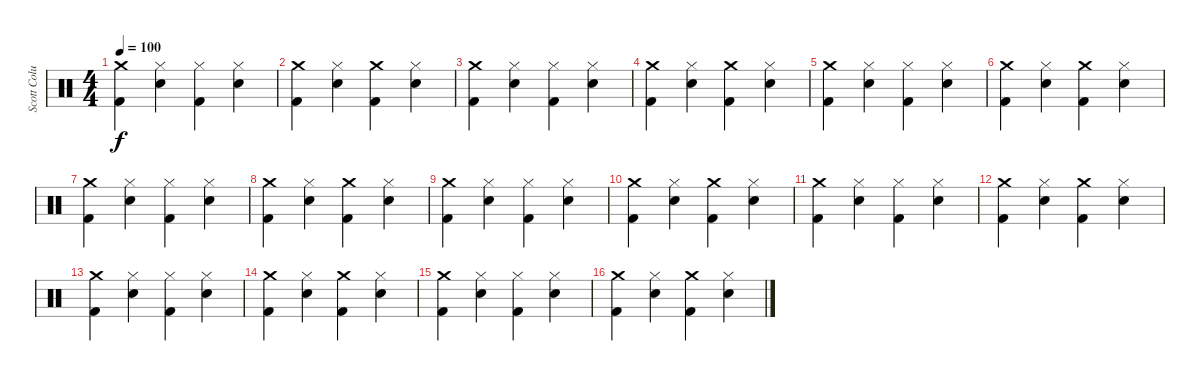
\track ("Scott Columbus" "Scott Colu") {instrument percussion}
\staff {score}
\articulation defaults
\ts (4 4)
\tempo 100
\clef neutral
\ks c
("Crash medium (hit)" "Kick (hit) 2").4{dy f} ("Hi-Hat (closed)" "Snare (hit) 2").4 ("Hi-Hat (closed)" "Kick (hit) 2").4 ("Hi-Hat (closed)" "Snare (hit) 2").4 |
("Crash medium (hit)" "Kick (hit) 2").4 ("Hi-Hat (closed)" "Snare (hit) 2").4 ("Crash medium (hit)" "Kick (hit) 2").4 ("Hi-Hat (closed)" "Snare (hit) 2").4 |
("Crash medium (hit)" "Kick (hit) 2").4 ("Hi-Hat (closed)" "Snare (hit) 2").4 ("Hi-Hat (closed)" "Kick (hit) 2").4 ("Hi-Hat (closed)" "Snare (hit) 2").4 |
("Crash medium (hit)" "Kick (hit) 2").4 ("Hi-Hat (closed)" "Snare (hit) 2").4 ("Crash medium (hit)" "Kick (hit) 2").4 ("Hi-Hat (closed)" "Snare (hit) 2").4 |
("Crash medium (hit)" "Kick (hit) 2").4 ("Hi-Hat (closed)" "Snare (hit) 2").4 ("Hi-Hat (closed)" "Kick (hit) 2").4 ("Hi-Hat (closed)" "Snare (hit) 2").4 |
("Crash medium (hit)" "Kick (hit) 2").4 ("Hi-Hat (closed)" "Snare (hit) 2").4 ("Crash medium (hit)" "Kick (hit) 2").4 ("Hi-Hat (closed)" "Snare (hit) 2").4 |
("Crash medium (hit)" "Kick (hit) 2").4 ("Hi-Hat (closed)" "Snare (hit) 2").4 ("Hi-Hat (closed)" "Kick (hit) 2").4 ("Hi-Hat (closed)" "Snare (hit) 2").4 |
("Crash medium (hit)" "Kick (hit) 2").4 ("Hi-Hat (closed)" "Snare (hit) 2").4 ("Crash medium (hit)" "Kick (hit) 2").4 ("Hi-Hat (closed)" "Snare (hit) 2").4 |
("Crash medium (hit)" "Kick (hit) 2").4 ("Hi-Hat (closed)" "Snare (hit) 2").4 ("Hi-Hat (closed)" "Kick (hit) 2").4 ("Hi-Hat (closed)" "Snare (hit) 2").4 |
("Crash medium (hit)" "Kick (hit) 2").4 ("Hi-Hat (closed)" "Snare (hit) 2").4 ("Crash medium (hit)" "Kick (hit) 2").4 ("Hi-Hat (closed)" "Snare (hit) 2").4 |
("Crash medium (hit)" "Kick (hit) 2").4 ("Hi-Hat (closed)" "Snare (hit) 2").4 ("Hi-Hat (closed)" "Kick (hit) 2").4 ("Hi-Hat (closed)" "Snare (hit) 2").4 |
("Crash medium (hit)" "Kick (hit) 2").4 ("Hi-Hat (closed)" "Snare (hit) 2").4 ("Crash medium (hit)" "Kick (hit) 2").4 ("Hi-Hat (closed)" "Snare (hit) 2").4 |
("Crash medium (hit)" "Kick (hit) 2").4 ("Hi-Hat (closed)" "Snare (hit) 2").4 ("Hi-Hat (closed)" "Kick (hit) 2").4 ("Hi-Hat (closed)" "Snare (hit) 2").4 |
("Crash medium (hit)" "Kick (hit) 2").4 ("Hi-Hat (closed)" "Snare (hit) 2").4 ("Crash medium (hit)" "Kick (hit) 2").4 ("Hi-Hat (closed)" "Snare (hit) 2").4 |
("Crash medium (hit)" "Kick (hit) 2").4 ("Hi-Hat (closed)" "Snare (hit) 2").4 ("Hi-Hat (closed)" "Kick (hit) 2").4 ("Hi-Hat (closed)" "Snare (hit) 2").4 |
("Crash medium (hit)" "Kick (hit) 2").4 ("Hi-Hat (closed)" "Snare (hit) 2").4 ("Crash medium (hit)" "Kick (hit) 2").4 ("Hi-Hat (closed)" "Snare (hit) 2").4
